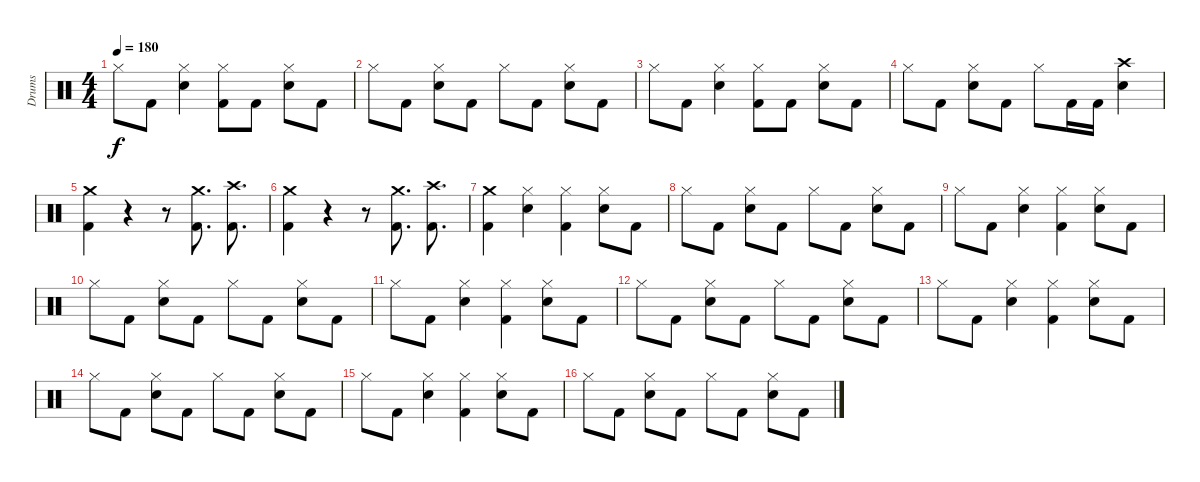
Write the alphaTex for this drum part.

\track ("Drums" "Drums") {instrument percussion}
\staff {score}
\articulation defaults
\ts (4 4)
\tempo 180
\clef neutral
\ks c "Hi-Hat (closed)".8{dy f} "Kick (hit) 2".8
("Hi-Hat (closed)" "Electric Snare (hit)").4 ("Hi-Hat (closed)" "Kick (hit) 2").8 "Kick (hit) 2".8 ("Hi-Hat (closed)" "Electric Snare (hit)").8 "Kick (hit) 2".8 |
"Hi-Hat (closed)".8 "Kick (hit) 2".8 ("Hi-Hat (closed)" "Electric Snare (hit)").8 "Kick (hit) 2".8 "Hi-Hat (closed)".8 "Kick (hit) 2".8 ("Hi-Hat (closed)" "Electric Snare (hit)").8 "Kick (hit) 2".8 |
"Hi-Hat (closed)".8 "Kick (hit) 2".8 ("Hi-Hat (closed)" "Electric Snare (hit)").4 ("Hi-Hat (closed)" "Kick (hit) 2").8 "Kick (hit) 2".8 ("Hi-Hat (closed)" "Electric Snare (hit)").8 "Kick (hit) 2".8 |
"Hi-Hat (closed)".8 "Kick (hit) 2".8 ("Hi-Hat (closed)" "Electric Snare (hit)").8 "Kick (hit) 2".8 "Hi-Hat (closed)".8 "Kick (hit) 2".16 "Kick (hit) 2".16 ("Crash high (hit)" "Electric Snare (hit)").4 |
("Crash medium (hit)" "Kick (hit) 2").4 r.4 r.8 ("Crash medium (hit)" "Kick (hit) 2").8{d} ("Crash high (hit)" "Kick (hit) 2").8{d} |
("Crash medium (hit)" "Kick (hit) 2").4 r.4 r.8 ("Crash medium (hit)" "Kick (hit) 2").8{d} ("Crash high (hit)" "Kick (hit) 2").8{d} |
("Crash medium (hit)" "Kick (hit) 2").4 ("Hi-Hat (closed)" "Electric Snare (hit)").4 ("Hi-Hat (closed)" "Kick (hit) 2").4 ("Hi-Hat (closed)" "Electric Snare (hit)").8 "Kick (hit) 2".8 |
"Hi-Hat (closed)".8 "Kick (hit) 2".8 ("Hi-Hat (closed)" "Electric Snare (hit)").8 "Kick (hit) 2".8 "Hi-Hat (closed)".8 "Kick (hit) 2".8 ("Hi-Hat (closed)" "Electric Snare (hit)").8 "Kick (hit) 2".8 |
"Hi-Hat (closed)".8 "Kick (hit) 2".8 ("Hi-Hat (closed)" "Electric Snare (hit)").4 ("Hi-Hat (closed)" "Kick (hit) 2").4 ("Hi-Hat (closed)" "Electric Snare (hit)").8 "Kick (hit) 2".8 |
"Hi-Hat (closed)".8 "Kick (hit) 2".8 ("Hi-Hat (closed)" "Electric Snare (hit)").8 "Kick (hit) 2".8 "Hi-Hat (closed)".8 "Kick (hit) 2".8 ("Hi-Hat (closed)" "Electric Snare (hit)").8 "Kick (hit) 2".8 |
"Hi-Hat (closed)".8 "Kick (hit) 2".8 ("Hi-Hat (closed)" "Electric Snare (hit)").4 ("Hi-Hat (closed)" "Kick (hit) 2").4 ("Hi-Hat (closed)" "Electric Snare (hit)").8 "Kick (hit) 2".8 |
"Hi-Hat (closed)".8 "Kick (hit) 2".8 ("Hi-Hat (closed)" "Electric Snare (hit)").8 "Kick (hit) 2".8 "Hi-Hat (closed)".8 "Kick (hit) 2".8 ("Hi-Hat (closed)" "Electric Snare (hit)").8 "Kick (hit) 2".8 |
"Hi-Hat (closed)".8 "Kick (hit) 2".8 ("Hi-Hat (closed)" "Electric Snare (hit)").4 ("Hi-Hat (closed)" "Kick (hit) 2").4 ("Hi-Hat (closed)" "Electric Snare (hit)").8 "Kick (hit) 2".8 |
"Hi-Hat (closed)".8 "Kick (hit) 2".8 ("Hi-Hat (closed)" "Electric Snare (hit)").8 "Kick (hit) 2".8 "Hi-Hat (closed)".8 "Kick (hit) 2".8 ("Hi-Hat (closed)" "Electric Snare (hit)").8 "Kick (hit) 2".8 |
"Hi-Hat (closed)".8 "Kick (hit) 2".8 ("Hi-Hat (closed)" "Electric Snare (hit)").4 ("Hi-Hat (closed)" "Kick (hit) 2").4 ("Hi-Hat (closed)" "Electric Snare (hit)").8 "Kick (hit) 2".8 |
"Hi-Hat (closed)".8 "Kick (hit) 2".8 ("Hi-Hat (closed)" "Electric Snare (hit)").8 "Kick (hit) 2".8 "Hi-Hat (closed)".8 "Kick (hit) 2".8 ("Hi-Hat (closed)" "Electric Snare (hit)").8 "Kick (hit) 2".8
